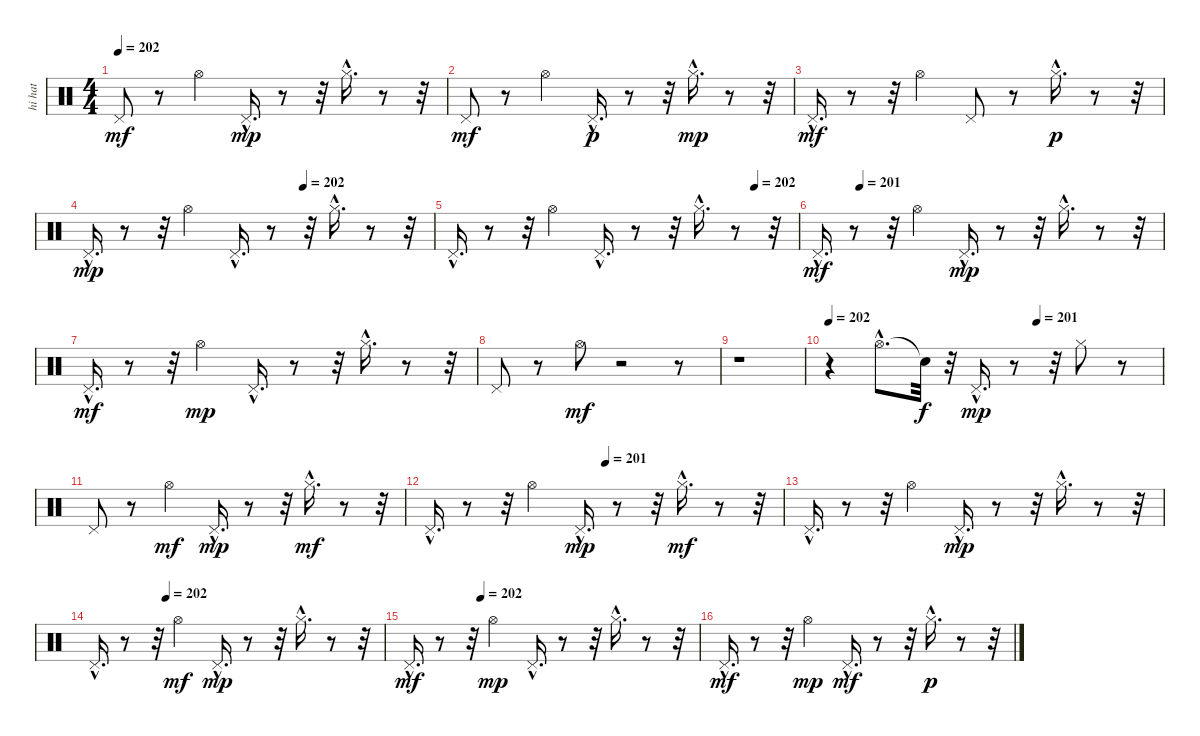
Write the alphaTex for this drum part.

\track ("hi hat" "hi hat") {instrument percussion}
\staff {score}
\articulation defaults
\ts (4 4)
\tempo 202
\clef neutral
\ks c "Pedal Hi-Hat (hit)".8{dy mf}
r.8 "Hi-Hat (open)".4 "Pedal Hi-Hat (hit)"{hac}.16{d dy mp} r.8 r.32 "Hi-Hat (closed)"{hac}.16{d} r.8 r.32 |
"Pedal Hi-Hat (hit)".8{dy mf} r.8 "Hi-Hat (open)".4 "Pedal Hi-Hat (hit)"{hac}.16{d dy p} r.8 r.32 "Hi-Hat (closed)"{hac}.16{d dy mp} r.8 r.32 |
"Pedal Hi-Hat (hit)"{hac}.16{d dy mf} r.8 r.32 "Hi-Hat (open)".4 "Pedal Hi-Hat (hit)".8 r.8 "Hi-Hat (closed)"{hac}.16{d dy p} r.8 r.32 |
\tempo (202 0.625)
"Pedal Hi-Hat (hit)"{hac}.16{d dy mp} r.8 r.32 "Hi-Hat (open)".4 "Pedal Hi-Hat (hit)"{hac}.16{d} r.8 r.32 "Hi-Hat (closed)"{hac}.16{d} r.8 r.32 |
\tempo (202 0.875)
"Pedal Hi-Hat (hit)"{hac}.16{d} r.8 r.32 "Hi-Hat (open)".4 "Pedal Hi-Hat (hit)"{hac}.16{d} r.8 r.32 "Hi-Hat (closed)"{hac}.16{d} r.8 r.32 |
\tempo (201 0.125)
"Pedal Hi-Hat (hit)"{hac}.16{d dy mf} r.8 r.32 "Hi-Hat (open)".4 "Pedal Hi-Hat (hit)"{hac}.16{d dy mp} r.8 r.32 "Hi-Hat (closed)"{hac}.16{d} r.8 r.32 |
"Pedal Hi-Hat (hit)"{hac}.16{d dy mf} r.8 r.32 "Hi-Hat (open)".4{dy mp} "Pedal Hi-Hat (hit)"{hac}.16{d} r.8 r.32 "Hi-Hat (closed)"{hac}.16{d} r.8 r.32 |
"Pedal Hi-Hat (hit)".8 r.8 "Hi-Hat (open)".8{dy mf} r.2 r.8 |
r.1 |
\tempo 202
\tempo (201 0.625)
r.4 "Hi-Hat (open)"{hac}.8{d} "Snare (hit)"{t}.32{dy f} r.32 "Pedal Hi-Hat (hit)"{hac}.16{d dy mp} r.8 r.32 "Hi-Hat (closed)".8 r.8 |
"Pedal Hi-Hat (hit)".8 r.8 "Hi-Hat (open)".4{dy mf} "Pedal Hi-Hat (hit)"{hac}.16{d dy mp} r.8 r.32 "Hi-Hat (closed)"{hac}.16{d dy mf} r.8 r.32 |
\tempo (201 0.5)
"Pedal Hi-Hat (hit)"{hac}.16{d} r.8 r.32 "Hi-Hat (open)".4 "Pedal Hi-Hat (hit)"{hac}.16{d dy mp} r.8 r.32 "Hi-Hat (closed)"{hac}.16{d dy mf} r.8 r.32 |
"Pedal Hi-Hat (hit)"{hac}.16{d} r.8 r.32 "Hi-Hat (open)".4 "Pedal Hi-Hat (hit)"{hac}.16{d dy mp} r.8 r.32 "Hi-Hat (closed)"{hac}.16{d} r.8 r.32 |
\tempo (202 0.25)
"Pedal Hi-Hat (hit)"{hac}.16{d} r.8 r.32 "Hi-Hat (open)".4{dy mf} "Pedal Hi-Hat (hit)"{hac}.16{d dy mp} r.8 r.32 "Hi-Hat (closed)"{hac}.16{d} r.8 r.32 |
\tempo (202 0.25)
"Pedal Hi-Hat (hit)"{hac}.16{d dy mf} r.8 r.32 "Hi-Hat (open)".4{dy mp} "Pedal Hi-Hat (hit)"{hac}.16{d} r.8 r.32 "Hi-Hat (closed)"{hac}.16{d} r.8 r.32 |
"Pedal Hi-Hat (hit)"{hac}.16{d dy mf} r.8 r.32 "Hi-Hat (open)".4{dy mp} "Pedal Hi-Hat (hit)"{hac}.16{d dy mf} r.8 r.32 "Hi-Hat (closed)"{hac}.16{d dy p} r.8 r.32
